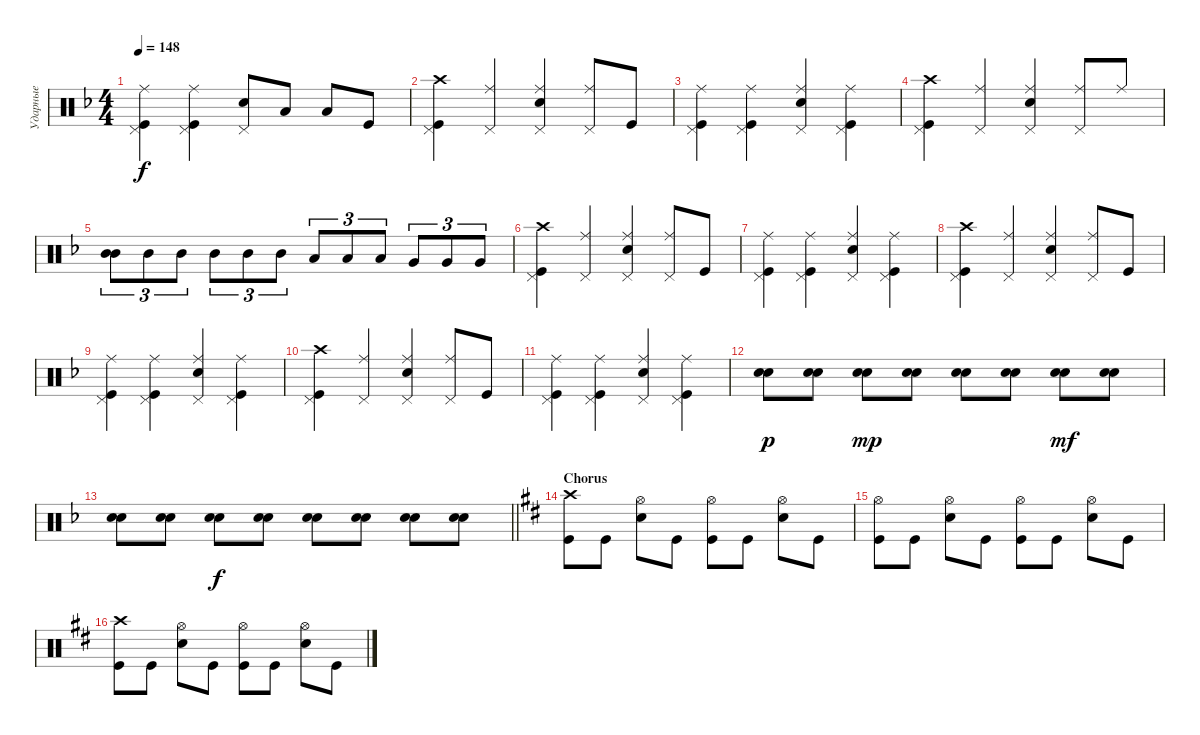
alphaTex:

\track ("Ударные" "Ударные") {instrument percussion}
\staff {score}
\articulation defaults
\ts (4 4)
\tempo 148
\clef neutral
\ks dminor
("Kick (hit)" "Pedal Hi-Hat (hit)" "Ride (middle)").4{dy f} ("Kick (hit)" "Pedal Hi-Hat (hit)" "Ride (middle)").4 ("Snare (hit) 2" "Pedal Hi-Hat (hit)").8 "Low Tom (hit)".8 "Low Tom (hit)".8 "Kick (hit)".8 |
("Kick (hit)" "Crash high (hit)" "Pedal Hi-Hat (hit)").4 ("Pedal Hi-Hat (hit)" "Ride (middle)").4 ("Pedal Hi-Hat (hit)" "Snare (hit) 2" "Ride (middle)").4 ("Pedal Hi-Hat (hit)" "Ride (middle)").8 "Kick (hit)".8 |
("Kick (hit)" "Pedal Hi-Hat (hit)" "Ride (middle)").4 ("Kick (hit)" "Pedal Hi-Hat (hit)" "Ride (middle)").4 ("Snare (hit) 2" "Pedal Hi-Hat (hit)" "Ride (middle)").4 ("Kick (hit)" "Pedal Hi-Hat (hit)" "Ride (middle)").4 |
("Kick (hit)" "Crash high (hit)" "Pedal Hi-Hat (hit)").4 ("Pedal Hi-Hat (hit)" "Ride (middle)").4 ("Pedal Hi-Hat (hit)" "Snare (hit) 2" "Ride (middle)").4 ("Pedal Hi-Hat (hit)" "Ride (middle)").8 "Ride (middle)".8 |
("Mid Tom (hit)" "Mid Tom (hit)").8{tu (3 2) bd 240} "Mid Tom (hit)".8{tu (3 2)} "Mid Tom (hit)".8{tu (3 2)} "Mid Tom (hit)".8{tu (3 2)} "Mid Tom (hit)".8{tu (3 2)} "Mid Tom (hit)".8{tu (3 2)} "Low Tom (hit)".8{tu (3 2)} "Low Tom (hit)".8{tu (3 2)} "Low Tom (hit)".8{tu (3 2)} "Very Low Tom (hit)".8{tu (3 2)} "Very Low Tom (hit)".8{tu (3 2)} "Very Low Tom (hit)".8{tu (3 2)} |
("Kick (hit)" "Crash high (hit)" "Pedal Hi-Hat (hit)").4 ("Pedal Hi-Hat (hit)" "Ride (middle)").4 ("Pedal Hi-Hat (hit)" "Snare (hit) 2" "Ride (middle)").4 ("Pedal Hi-Hat (hit)" "Ride (middle)").8 "Kick (hit)".8 |
("Kick (hit)" "Pedal Hi-Hat (hit)" "Ride (middle)").4 ("Kick (hit)" "Pedal Hi-Hat (hit)" "Ride (middle)").4 ("Snare (hit) 2" "Pedal Hi-Hat (hit)" "Ride (middle)").4 ("Kick (hit)" "Pedal Hi-Hat (hit)" "Ride (middle)").4 |
("Kick (hit)" "Crash high (hit)" "Pedal Hi-Hat (hit)").4 ("Pedal Hi-Hat (hit)" "Ride (middle)").4 ("Pedal Hi-Hat (hit)" "Snare (hit) 2" "Ride (middle)").4 ("Pedal Hi-Hat (hit)" "Ride (middle)").8 "Kick (hit)".8 |
("Kick (hit)" "Pedal Hi-Hat (hit)" "Ride (middle)").4 ("Kick (hit)" "Pedal Hi-Hat (hit)" "Ride (middle)").4 ("Snare (hit) 2" "Pedal Hi-Hat (hit)" "Ride (middle)").4 ("Pedal Hi-Hat (hit)" "Kick (hit)" "Ride (middle)").4 |
("Kick (hit)" "Crash high (hit)" "Pedal Hi-Hat (hit)").4 ("Pedal Hi-Hat (hit)" "Ride (middle)").4 ("Pedal Hi-Hat (hit)" "Snare (hit) 2" "Ride (middle)").4 ("Pedal Hi-Hat (hit)" "Ride (middle)").8 "Kick (hit)".8 |
("Kick (hit)" "Pedal Hi-Hat (hit)" "Ride (middle)").4 ("Kick (hit)" "Pedal Hi-Hat (hit)" "Ride (middle)").4 ("Snare (hit) 2" "Pedal Hi-Hat (hit)" "Ride (middle)").4 ("Kick (hit)" "Pedal Hi-Hat (hit)" "Ride (middle)").4 |
("Snare (hit) 2" "Snare (hit) 2").8{bd 120 dy p} ("Snare (hit) 2" "Snare (hit) 2").8{bd 120} ("Snare (hit) 2" "Snare (hit) 2").8{bd 120 dy mp} ("Snare (hit) 2" "Snare (hit) 2").8{bd 120} ("Snare (hit) 2" "Snare (hit) 2").8{bd 120} ("Snare (hit) 2" "Snare (hit) 2").8{bd 120} ("Snare (hit) 2" "Snare (hit) 2").8{bd 120 dy mf} ("Snare (hit) 2" "Snare (hit) 2").8{bd 120} |
\barLineRight lightlight
("Snare (hit) 2" "Snare (hit) 2").8{bd 120} ("Snare (hit) 2" "Snare (hit) 2").8{bd 120} ("Snare (hit) 2" "Snare (hit) 2").8{bd 120 dy f} ("Snare (hit) 2" "Snare (hit) 2").8{bd 120} ("Snare (hit) 2" "Snare (hit) 2").8{bd 120} ("Snare (hit) 2" "Snare (hit) 2").8{bd 120} ("Snare (hit) 2" "Snare (hit) 2").8{bd 120} ("Snare (hit) 2" "Snare (hit) 2").8{bd 120} |
\section ("" "Chorus")
\ks bminor
("Crash high (hit)" "Kick (hit)").8 "Kick (hit)".8 ("Snare (hit) 2" "Hi-Hat (open)").8 "Kick (hit)".8 ("Kick (hit)" "Hi-Hat (open)").8 "Kick (hit)".8 ("Snare (hit) 2" "Hi-Hat (open)").8 "Kick (hit)".8 |
("Hi-Hat (open)" "Kick (hit)").8 "Kick (hit)".8 ("Snare (hit) 2" "Hi-Hat (open)").8 "Kick (hit)".8 ("Kick (hit)" "Hi-Hat (open)").8 "Kick (hit)".8 ("Snare (hit) 2" "Hi-Hat (open)").8 "Kick (hit)".8 |
("Crash high (hit)" "Kick (hit)").8 "Kick (hit)".8 ("Snare (hit) 2" "Hi-Hat (open)").8 "Kick (hit)".8 ("Kick (hit)" "Hi-Hat (open)").8 "Kick (hit)".8 ("Snare (hit) 2" "Hi-Hat (open)").8 "Kick (hit)".8
